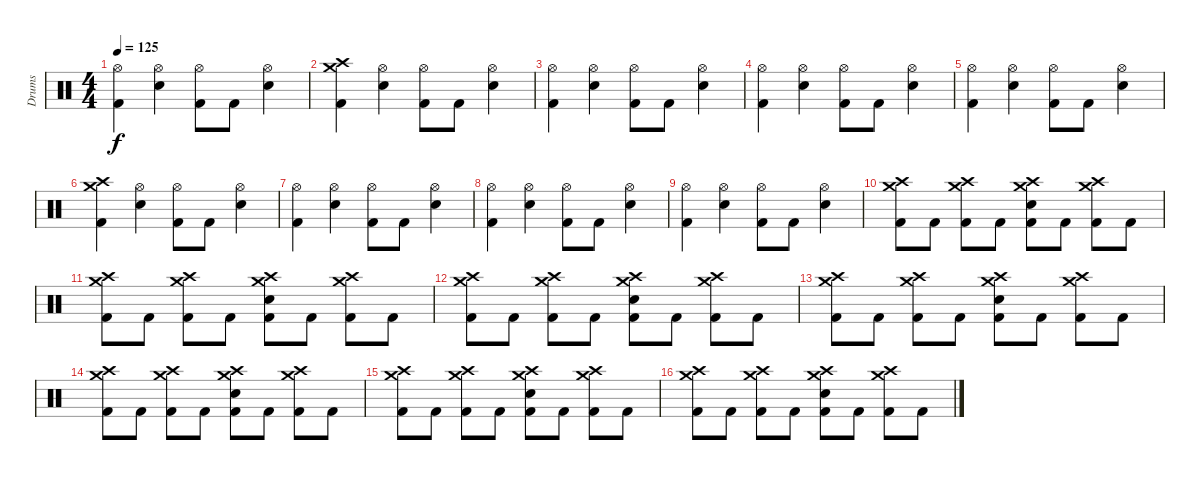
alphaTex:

\track ("Drums" "Drums") {instrument percussion}
\staff {score}
\articulation defaults
\ts (4 4)
\tempo 125
\clef neutral
\ks c
("Hi-Hat (open)" "Kick (hit) 2").4{dy f} ("Hi-Hat (open)" "Snare (hit) 2").4 ("Hi-Hat (open)" "Kick (hit) 2").8 "Kick (hit) 2".8 ("Hi-Hat (open)" "Snare (hit) 2").4 |
("Crash medium (hit)" "Crash high (hit)" "Kick (hit) 2").4 ("Hi-Hat (open)" "Snare (hit) 2").4 ("Hi-Hat (open)" "Kick (hit) 2").8 "Kick (hit) 2".8 ("Hi-Hat (open)" "Snare (hit) 2").4 |
("Hi-Hat (open)" "Kick (hit) 2").4 ("Hi-Hat (open)" "Snare (hit) 2").4 ("Hi-Hat (open)" "Kick (hit) 2").8 "Kick (hit) 2".8 ("Hi-Hat (open)" "Snare (hit) 2").4 |
("Hi-Hat (open)" "Kick (hit) 2").4 ("Hi-Hat (open)" "Snare (hit) 2").4 ("Hi-Hat (open)" "Kick (hit) 2").8 "Kick (hit) 2".8 ("Hi-Hat (open)" "Snare (hit) 2").4 |
("Hi-Hat (open)" "Kick (hit) 2").4 ("Hi-Hat (open)" "Snare (hit) 2").4 ("Hi-Hat (open)" "Kick (hit) 2").8 "Kick (hit) 2".8 ("Hi-Hat (open)" "Snare (hit) 2").4 |
("Crash medium (hit)" "Crash high (hit)" "Kick (hit) 2").4 ("Hi-Hat (open)" "Snare (hit) 2").4 ("Hi-Hat (open)" "Kick (hit) 2").8 "Kick (hit) 2".8 ("Hi-Hat (open)" "Snare (hit) 2").4 |
("Hi-Hat (open)" "Kick (hit) 2").4 ("Hi-Hat (open)" "Snare (hit) 2").4 ("Hi-Hat (open)" "Kick (hit) 2").8 "Kick (hit) 2".8 ("Hi-Hat (open)" "Snare (hit) 2").4 |
("Hi-Hat (open)" "Kick (hit) 2").4 ("Hi-Hat (open)" "Snare (hit) 2").4 ("Hi-Hat (open)" "Kick (hit) 2").8 "Kick (hit) 2".8 ("Hi-Hat (open)" "Snare (hit) 2").4 |
("Hi-Hat (open)" "Kick (hit) 2").4 ("Hi-Hat (open)" "Snare (hit) 2").4 ("Hi-Hat (open)" "Kick (hit) 2").8 "Kick (hit) 2".8 ("Hi-Hat (open)" "Snare (hit) 2").4 |
("Crash medium (hit)" "Crash high (hit)" "Kick (hit) 2").8 "Kick (hit) 2".8 ("Crash medium (hit)" "Crash high (hit)" "Kick (hit) 2").8 "Kick (hit) 2".8 ("Crash medium (hit)" "Snare (hit) 2" "Crash high (hit)" "Kick (hit) 2").8 "Kick (hit) 2".8 ("Crash medium (hit)" "Crash high (hit)" "Kick (hit) 2").8 "Kick (hit) 2".8 |
("Crash medium (hit)" "Crash high (hit)" "Kick (hit) 2").8 "Kick (hit) 2".8 ("Crash medium (hit)" "Crash high (hit)" "Kick (hit) 2").8 "Kick (hit) 2".8 ("Crash medium (hit)" "Snare (hit) 2" "Crash high (hit)" "Kick (hit) 2").8 "Kick (hit) 2".8 ("Crash medium (hit)" "Crash high (hit)" "Kick (hit) 2").8 "Kick (hit) 2".8 |
("Crash medium (hit)" "Crash high (hit)" "Kick (hit) 2").8 "Kick (hit) 2".8 ("Crash medium (hit)" "Crash high (hit)" "Kick (hit) 2").8 "Kick (hit) 2".8 ("Crash medium (hit)" "Snare (hit) 2" "Crash high (hit)" "Kick (hit) 2").8 "Kick (hit) 2".8 ("Crash medium (hit)" "Crash high (hit)" "Kick (hit) 2").8 "Kick (hit) 2".8 |
("Crash medium (hit)" "Crash high (hit)" "Kick (hit) 2").8 "Kick (hit) 2".8 ("Crash medium (hit)" "Crash high (hit)" "Kick (hit) 2").8 "Kick (hit) 2".8 ("Crash medium (hit)" "Snare (hit) 2" "Crash high (hit)" "Kick (hit) 2").8 "Kick (hit) 2".8 ("Crash medium (hit)" "Crash high (hit)" "Kick (hit) 2").8 "Kick (hit) 2".8 |
("Crash medium (hit)" "Crash high (hit)" "Kick (hit) 2").8 "Kick (hit) 2".8 ("Crash medium (hit)" "Crash high (hit)" "Kick (hit) 2").8 "Kick (hit) 2".8 ("Crash medium (hit)" "Snare (hit) 2" "Crash high (hit)" "Kick (hit) 2").8 "Kick (hit) 2".8 ("Crash medium (hit)" "Crash high (hit)" "Kick (hit) 2").8 "Kick (hit) 2".8 |
("Crash medium (hit)" "Crash high (hit)" "Kick (hit) 2").8 "Kick (hit) 2".8 ("Crash medium (hit)" "Crash high (hit)" "Kick (hit) 2").8 "Kick (hit) 2".8 ("Crash medium (hit)" "Snare (hit) 2" "Crash high (hit)" "Kick (hit) 2").8 "Kick (hit) 2".8 ("Crash medium (hit)" "Crash high (hit)" "Kick (hit) 2").8 "Kick (hit) 2".8 |
("Crash medium (hit)" "Crash high (hit)" "Kick (hit) 2").8 "Kick (hit) 2".8 ("Crash medium (hit)" "Crash high (hit)" "Kick (hit) 2").8 "Kick (hit) 2".8 ("Crash medium (hit)" "Snare (hit) 2" "Crash high (hit)" "Kick (hit) 2").8 "Kick (hit) 2".8 ("Crash medium (hit)" "Crash high (hit)" "Kick (hit) 2").8 "Kick (hit) 2".8
